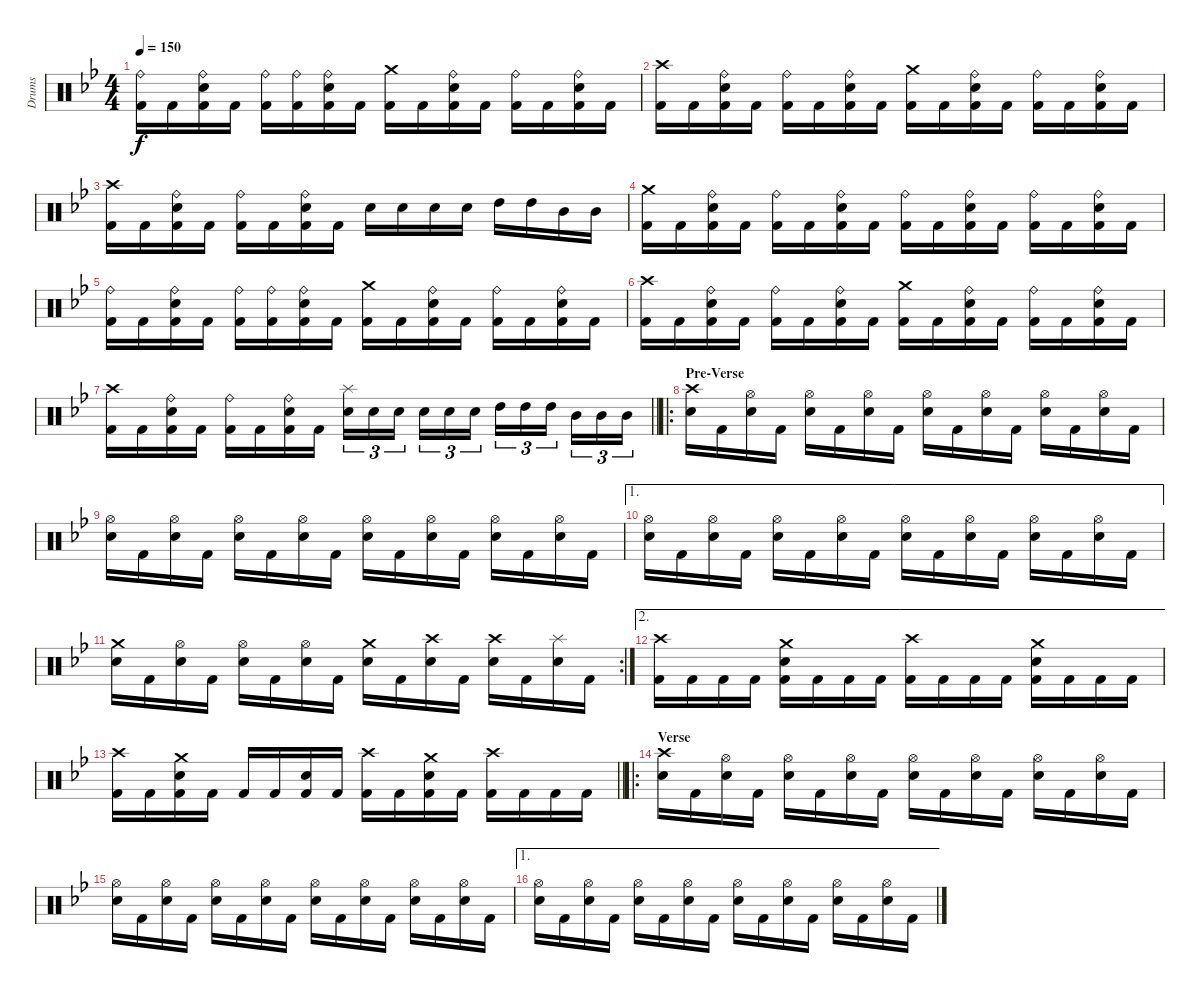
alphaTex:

\track ("Drums" "Drums") {instrument percussion}
\staff {score}
\articulation defaults
\ts (4 4)
\tempo 150
\clef neutral
\ks gminor
("Kick (hit) 2" "Ride (bell)").16{dy f} "Kick (hit) 2".16 ("Kick (hit) 2" "Snare (hit) 2" "Ride (bell)").16 "Kick (hit) 2".16 ("Kick (hit) 2" "Ride (bell)").16 ("Kick (hit) 2" "Ride (bell)").16 ("Kick (hit) 2" "Snare (hit) 2" "Ride (bell)").16 "Kick (hit) 2".16 ("Kick (hit) 2" "Crash medium (hit)").16 "Kick (hit) 2".16 ("Kick (hit) 2" "Snare (hit) 2" "Ride (bell)").16 "Kick (hit) 2".16 ("Kick (hit) 2" "Ride (bell)").16 "Kick (hit) 2".16 ("Kick (hit) 2" "Snare (hit) 2" "Ride (bell)").16 "Kick (hit) 2".16 |
("Kick (hit) 2" "Crash high (hit)").16 "Kick (hit) 2".16 ("Kick (hit) 2" "Snare (hit) 2" "Ride (bell)").16 "Kick (hit) 2".16 ("Kick (hit) 2" "Ride (bell)").16 "Kick (hit) 2".16 ("Kick (hit) 2" "Snare (hit) 2" "Ride (bell)").16 "Kick (hit) 2".16 ("Kick (hit) 2" "Crash medium (hit)").16 "Kick (hit) 2".16 ("Kick (hit) 2" "Snare (hit) 2" "Ride (bell)").16 "Kick (hit) 2".16 ("Kick (hit) 2" "Ride (bell)").16 "Kick (hit) 2".16 ("Kick (hit) 2" "Snare (hit) 2" "Ride (bell)").16 "Kick (hit) 2".16 |
("Kick (hit) 2" "Crash high (hit)").16 "Kick (hit) 2".16 ("Kick (hit) 2" "Snare (hit) 2" "Ride (bell)").16 "Kick (hit) 2".16 ("Kick (hit) 2" "Ride (bell)").16 "Kick (hit) 2".16 ("Kick (hit) 2" "Snare (hit) 2" "Ride (bell)").16 "Kick (hit) 2".16 "Snare (hit) 2".16 "Snare (hit) 2".16 "Snare (hit) 2".16 "Snare (hit) 2".16 "High Tom (hit)".16 "High Tom (hit)".16 "Mid Tom (hit)".16 "Mid Tom (hit)".16 |
("Kick (hit) 2" "Crash medium (hit)").16 "Kick (hit) 2".16 ("Kick (hit) 2" "Snare (hit) 2" "Ride (bell)").16 "Kick (hit) 2".16 ("Kick (hit) 2" "Ride (bell)").16 "Kick (hit) 2".16 ("Kick (hit) 2" "Snare (hit) 2" "Ride (bell)").16 "Kick (hit) 2".16 ("Kick (hit) 2" "Ride (bell)").16 "Kick (hit) 2".16 ("Kick (hit) 2" "Snare (hit) 2" "Ride (bell)").16 "Kick (hit) 2".16 ("Kick (hit) 2" "Ride (bell)").16 "Kick (hit) 2".16 ("Kick (hit) 2" "Snare (hit) 2" "Ride (bell)").16 "Kick (hit) 2".16 |
("Kick (hit) 2" "Ride (bell)").16 "Kick (hit) 2".16 ("Kick (hit) 2" "Snare (hit) 2" "Ride (bell)").16 "Kick (hit) 2".16 ("Kick (hit) 2" "Ride (bell)").16 ("Kick (hit) 2" "Ride (bell)").16 ("Kick (hit) 2" "Snare (hit) 2" "Ride (bell)").16 "Kick (hit) 2".16 ("Kick (hit) 2" "Crash medium (hit)").16 "Kick (hit) 2".16 ("Kick (hit) 2" "Snare (hit) 2" "Ride (bell)").16 "Kick (hit) 2".16 ("Kick (hit) 2" "Ride (bell)").16 "Kick (hit) 2".16 ("Kick (hit) 2" "Snare (hit) 2" "Ride (bell)").16 "Kick (hit) 2".16 |
("Kick (hit) 2" "Crash high (hit)").16 "Kick (hit) 2".16 ("Kick (hit) 2" "Snare (hit) 2" "Ride (bell)").16 "Kick (hit) 2".16 ("Kick (hit) 2" "Ride (bell)").16 "Kick (hit) 2".16 ("Kick (hit) 2" "Snare (hit) 2" "Ride (bell)").16 "Kick (hit) 2".16 ("Kick (hit) 2" "Crash medium (hit)").16 "Kick (hit) 2".16 ("Kick (hit) 2" "Snare (hit) 2" "Ride (bell)").16 "Kick (hit) 2".16 ("Kick (hit) 2" "Ride (bell)").16 "Kick (hit) 2".16 ("Kick (hit) 2" "Snare (hit) 2" "Ride (bell)").16 "Kick (hit) 2".16 |
\barLineRight lightlight
("Kick (hit) 2" "Crash high (hit)").16 "Kick (hit) 2".16 ("Kick (hit) 2" "Snare (hit) 2" "Ride (bell)").16 "Kick (hit) 2".16 ("Kick (hit) 2" "Ride (bell)").16 "Kick (hit) 2".16 ("Kick (hit) 2" "Snare (hit) 2" "Ride (bell)").16 "Kick (hit) 2".16 ("Snare (hit) 2" "Splash (hit)").16{tu (3 2)} "Snare (hit) 2".16{tu (3 2)} "Snare (hit) 2".16{tu (3 2) beam splitsecondary} "Snare (hit) 2".16{tu (3 2)} "Snare (hit) 2".16{tu (3 2)} "Snare (hit) 2".16{tu (3 2)} "High Tom (hit)".16{tu (3 2)} "High Tom (hit)".16{tu (3 2)} "High Tom (hit)".16{tu (3 2) beam splitsecondary} "Mid Tom (hit)".16{tu (3 2)} "Mid Tom (hit)".16{tu (3 2)} "Mid Tom (hit)".16{tu (3 2)} |
\ro
\section ("" "Pre-Verse")
("Snare (hit) 2" "Crash high (hit)").16 "Kick (hit) 2".16 ("Snare (hit) 2" "Hi-Hat (open)").16 "Kick (hit) 2".16 ("Snare (hit) 2" "Hi-Hat (open)").16 "Kick (hit) 2".16 ("Snare (hit) 2" "Hi-Hat (open)").16 "Kick (hit) 2".16 ("Snare (hit) 2" "Hi-Hat (open)").16 "Kick (hit) 2".16 ("Snare (hit) 2" "Hi-Hat (open)").16 "Kick (hit) 2".16 ("Snare (hit) 2" "Hi-Hat (open)").16 "Kick (hit) 2".16 ("Snare (hit) 2" "Hi-Hat (open)").16 "Kick (hit) 2".16 |
("Snare (hit) 2" "Hi-Hat (open)").16 "Kick (hit) 2".16 ("Snare (hit) 2" "Hi-Hat (open)").16 "Kick (hit) 2".16 ("Snare (hit) 2" "Hi-Hat (open)").16 "Kick (hit) 2".16 ("Snare (hit) 2" "Hi-Hat (open)").16 "Kick (hit) 2".16 ("Snare (hit) 2" "Hi-Hat (open)").16 "Kick (hit) 2".16 ("Snare (hit) 2" "Hi-Hat (open)").16 "Kick (hit) 2".16 ("Snare (hit) 2" "Hi-Hat (open)").16 "Kick (hit) 2".16 ("Snare (hit) 2" "Hi-Hat (open)").16 "Kick (hit) 2".16 |
\ae 1
("Snare (hit) 2" "Hi-Hat (open)").16 "Kick (hit) 2".16 ("Snare (hit) 2" "Hi-Hat (open)").16 "Kick (hit) 2".16 ("Snare (hit) 2" "Hi-Hat (open)").16 "Kick (hit) 2".16 ("Snare (hit) 2" "Hi-Hat (open)").16 "Kick (hit) 2".16 ("Snare (hit) 2" "Hi-Hat (open)").16 "Kick (hit) 2".16 ("Snare (hit) 2" "Hi-Hat (open)").16 "Kick (hit) 2".16 ("Snare (hit) 2" "Hi-Hat (open)").16 "Kick (hit) 2".16 ("Snare (hit) 2" "Hi-Hat (open)").16 "Kick (hit) 2".16 |
\rc 2
("Snare (hit) 2" "Crash medium (hit)").16 "Kick (hit) 2".16 ("Snare (hit) 2" "Hi-Hat (open)").16 "Kick (hit) 2".16 ("Snare (hit) 2" "Hi-Hat (open)").16 "Kick (hit) 2".16 ("Snare (hit) 2" "Hi-Hat (open)").16 "Kick (hit) 2".16 ("Snare (hit) 2" "Crash medium (hit)").16 "Kick (hit) 2".16 ("Snare (hit) 2" "Crash high (hit)").16 "Kick (hit) 2".16 ("Snare (hit) 2" "Crash high (hit)").16 "Kick (hit) 2".16 ("Snare (hit) 2" "Splash (hit)").16 "Kick (hit) 2".16 |
\ae 2
("Kick (hit) 2" "Crash high (hit)").16 "Kick (hit) 2".16 "Kick (hit) 2".16 "Kick (hit) 2".16 ("Kick (hit) 2" "Snare (hit) 2" "Crash medium (hit)").16 "Kick (hit) 2".16 "Kick (hit) 2".16 "Kick (hit) 2".16 ("Kick (hit) 2" "Crash high (hit)").16 "Kick (hit) 2".16 "Kick (hit) 2".16 "Kick (hit) 2".16 ("Kick (hit) 2" "Snare (hit) 2" "Crash medium (hit)").16 "Kick (hit) 2".16 "Kick (hit) 2".16 "Kick (hit) 2".16 |
\barLineRight lightlight
("Kick (hit) 2" "Crash high (hit)").16 "Kick (hit) 2".16 ("Kick (hit) 2" "Snare (hit) 2" "Crash medium (hit)").16 "Kick (hit) 2".16 "Kick (hit) 2".16 "Kick (hit) 2".16 ("Kick (hit) 2" "Snare (hit) 2").16 "Kick (hit) 2".16 ("Kick (hit) 2" "Crash high (hit)").16 "Kick (hit) 2".16 ("Kick (hit) 2" "Snare (hit) 2" "Crash medium (hit)").16 "Kick (hit) 2".16 ("Kick (hit) 2" "Crash high (hit)").16 "Kick (hit) 2".16 "Kick (hit) 2".16 "Kick (hit) 2".16 |
\ro
\section ("" "Verse")
("Snare (hit) 2" "Crash high (hit)").16 "Kick (hit) 2".16 ("Snare (hit) 2" "Hi-Hat (open)").16 "Kick (hit) 2".16 ("Snare (hit) 2" "Hi-Hat (open)").16 "Kick (hit) 2".16 ("Snare (hit) 2" "Hi-Hat (open)").16 "Kick (hit) 2".16 ("Snare (hit) 2" "Hi-Hat (open)").16 "Kick (hit) 2".16 ("Snare (hit) 2" "Hi-Hat (open)").16 "Kick (hit) 2".16 ("Snare (hit) 2" "Hi-Hat (open)").16 "Kick (hit) 2".16 ("Snare (hit) 2" "Hi-Hat (open)").16 "Kick (hit) 2".16 |
("Snare (hit) 2" "Hi-Hat (open)").16 "Kick (hit) 2".16 ("Snare (hit) 2" "Hi-Hat (open)").16 "Kick (hit) 2".16 ("Snare (hit) 2" "Hi-Hat (open)").16 "Kick (hit) 2".16 ("Snare (hit) 2" "Hi-Hat (open)").16 "Kick (hit) 2".16 ("Snare (hit) 2" "Hi-Hat (open)").16 "Kick (hit) 2".16 ("Snare (hit) 2" "Hi-Hat (open)").16 "Kick (hit) 2".16 ("Snare (hit) 2" "Hi-Hat (open)").16 "Kick (hit) 2".16 ("Snare (hit) 2" "Hi-Hat (open)").16 "Kick (hit) 2".16 |
\ae 1
("Snare (hit) 2" "Hi-Hat (open)").16 "Kick (hit) 2".16 ("Snare (hit) 2" "Hi-Hat (open)").16 "Kick (hit) 2".16 ("Snare (hit) 2" "Hi-Hat (open)").16 "Kick (hit) 2".16 ("Snare (hit) 2" "Hi-Hat (open)").16 "Kick (hit) 2".16 ("Snare (hit) 2" "Hi-Hat (open)").16 "Kick (hit) 2".16 ("Snare (hit) 2" "Hi-Hat (open)").16 "Kick (hit) 2".16 ("Snare (hit) 2" "Hi-Hat (open)").16 "Kick (hit) 2".16 ("Snare (hit) 2" "Hi-Hat (open)").16 "Kick (hit) 2".16
